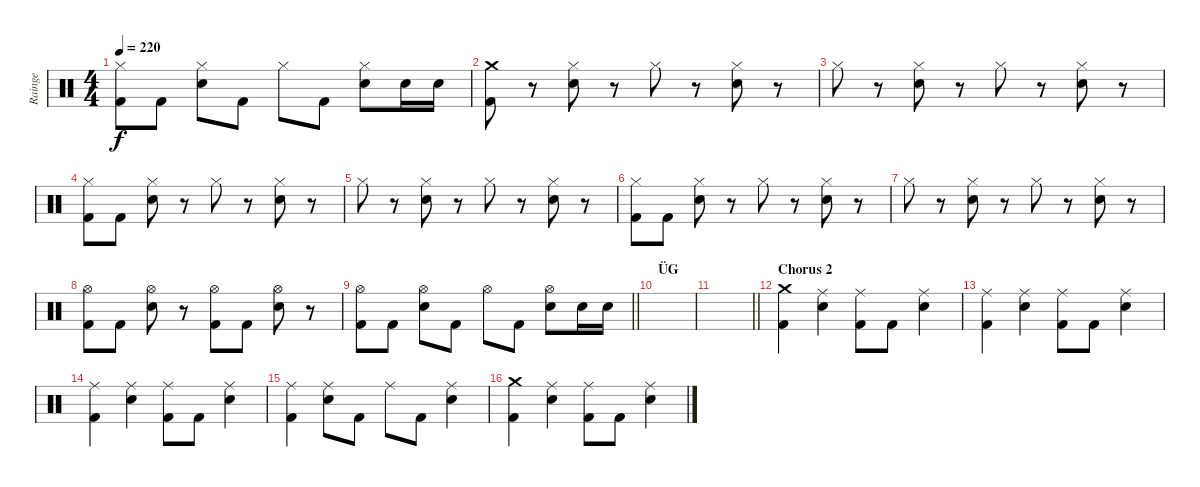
\track ("Rainge" "Rainge") {instrument percussion}
\staff {score}
\articulation defaults
\ts (4 4)
\tempo 220
\clef neutral
\ks c
("Hi-Hat (closed)" "Kick (hit) 2").8{dy f} "Kick (hit) 2".8 ("Hi-Hat (closed)" "Electric Snare (hit)").8 "Kick (hit) 2".8 "Hi-Hat (closed)".8 "Kick (hit) 2".8 ("Hi-Hat (closed)" "Electric Snare (hit)").8 "Electric Snare (hit)".16 "Electric Snare (hit)".16 |
("Crash medium (hit)" "Kick (hit) 2").8 r.8 ("Hi-Hat (closed)" "Electric Snare (hit)").8 r.8 "Hi-Hat (closed)".8 r.8 ("Hi-Hat (closed)" "Electric Snare (hit)").8 r.8 |
"Hi-Hat (closed)".8 r.8 ("Hi-Hat (closed)" "Electric Snare (hit)").8 r.8 "Hi-Hat (closed)".8 r.8 ("Hi-Hat (closed)" "Electric Snare (hit)").8 r.8 |
("Hi-Hat (closed)" "Kick (hit) 2").8 "Kick (hit) 2".8 ("Hi-Hat (closed)" "Electric Snare (hit)").8 r.8 "Hi-Hat (closed)".8 r.8 ("Hi-Hat (closed)" "Electric Snare (hit)").8 r.8 |
"Hi-Hat (closed)".8 r.8 ("Hi-Hat (closed)" "Electric Snare (hit)").8 r.8 "Hi-Hat (closed)".8 r.8 ("Hi-Hat (closed)" "Electric Snare (hit)").8 r.8 |
("Hi-Hat (closed)" "Kick (hit) 2").8 "Kick (hit) 2".8 ("Hi-Hat (closed)" "Electric Snare (hit)").8 r.8 "Hi-Hat (closed)".8 r.8 ("Hi-Hat (closed)" "Electric Snare (hit)").8 r.8 |
"Hi-Hat (closed)".8 r.8 ("Hi-Hat (closed)" "Electric Snare (hit)").8 r.8 "Hi-Hat (closed)".8 r.8 ("Hi-Hat (closed)" "Electric Snare (hit)").8 r.8 |
("Hi-Hat (open)" "Kick (hit) 2").8 "Kick (hit) 2".8 ("Hi-Hat (open)" "Electric Snare (hit)").8 r.8 ("Hi-Hat (open)" "Kick (hit) 2").8 "Kick (hit) 2".8 ("Hi-Hat (open)" "Electric Snare (hit)").8 r.8 |
\barLineRight lightlight
("Hi-Hat (open)" "Kick (hit) 2").8 "Kick (hit) 2".8 ("Hi-Hat (open)" "Electric Snare (hit)").8 "Kick (hit) 2".8 "Hi-Hat (open)".8 "Kick (hit) 2".8 ("Hi-Hat (open)" "Electric Snare (hit)").8 "Electric Snare (hit)".16 "Electric Snare (hit)".16 |
\section ("" "ÜG")
|
\barLineRight lightlight
|
\section ("" "Chorus 2")
("Crash medium (hit)" "Kick (hit) 2").4 ("Ride (middle)" "Electric Snare (hit)").4 ("Ride (middle)" "Kick (hit) 2").8 "Kick (hit) 2".8 ("Ride (middle)" "Electric Snare (hit)").4 |
("Ride (middle)" "Kick (hit) 2").4 ("Ride (middle)" "Electric Snare (hit)").4 ("Ride (middle)" "Kick (hit) 2").8 "Kick (hit) 2".8 ("Ride (middle)" "Electric Snare (hit)").4 |
("Ride (middle)" "Kick (hit) 2").4 ("Ride (middle)" "Electric Snare (hit)").4 ("Ride (middle)" "Kick (hit) 2").8 "Kick (hit) 2".8 ("Ride (middle)" "Electric Snare (hit)").4 |
("Ride (middle)" "Kick (hit) 2").4 ("Ride (middle)" "Electric Snare (hit)").8 "Kick (hit) 2".8 "Ride (middle)".8 "Kick (hit) 2".8 ("Ride (middle)" "Electric Snare (hit)").4 |
("Crash medium (hit)" "Kick (hit) 2").4 ("Ride (middle)" "Electric Snare (hit)").4 ("Ride (middle)" "Kick (hit) 2").8 "Kick (hit) 2".8 ("Ride (middle)" "Electric Snare (hit)").4
